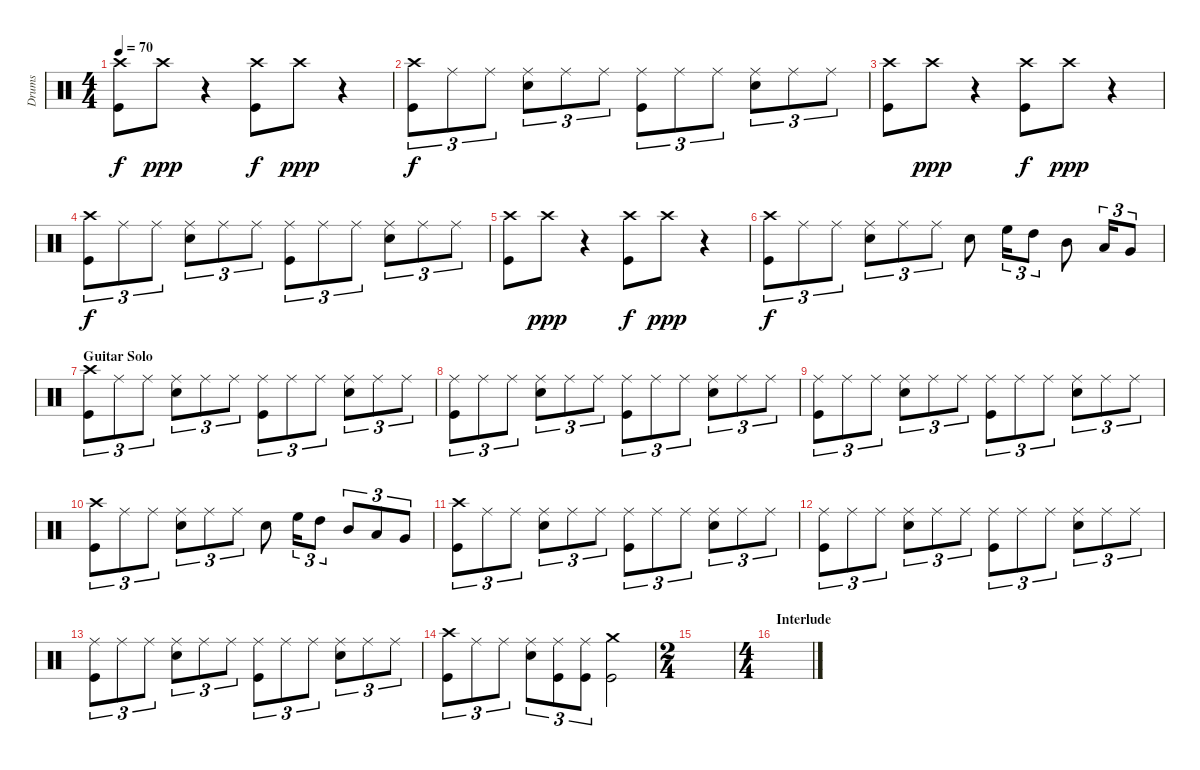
\track ("Drums" "Drums") {instrument percussion}
\staff {score}
\articulation defaults
\ts (4 4)
\tempo 70
\clef neutral
\ks c
("Crash high (hit)" "Kick (hit)").8{dy f} "Crash high (hit)".8{dy ppp} r.4 ("Crash high (hit)" "Kick (hit)").8{dy f} "Crash high (hit)".8{dy ppp} r.4 |
("Crash high (hit)" "Kick (hit)").8{tu (3 2) dy f} "Ride (middle)".8{tu (3 2)} "Ride (middle)".8{tu (3 2)} ("Ride (middle)" "Electric Snare (hit)").8{tu (3 2)} "Ride (middle)".8{tu (3 2)} "Ride (middle)".8{tu (3 2)} ("Ride (middle)" "Kick (hit)").8{tu (3 2)} "Ride (middle)".8{tu (3 2)} "Ride (middle)".8{tu (3 2)} ("Ride (middle)" "Electric Snare (hit)").8{tu (3 2)} "Ride (middle)".8{tu (3 2)} "Ride (middle)".8{tu (3 2)} |
("Crash high (hit)" "Kick (hit)").8 "Crash high (hit)".8{dy ppp} r.4 ("Crash high (hit)" "Kick (hit)").8{dy f} "Crash high (hit)".8{dy ppp} r.4 |
("Crash high (hit)" "Kick (hit)").8{tu (3 2) dy f} "Ride (middle)".8{tu (3 2)} "Ride (middle)".8{tu (3 2)} ("Ride (middle)" "Electric Snare (hit)").8{tu (3 2)} "Ride (middle)".8{tu (3 2)} "Ride (middle)".8{tu (3 2)} ("Ride (middle)" "Kick (hit)").8{tu (3 2)} "Ride (middle)".8{tu (3 2)} "Ride (middle)".8{tu (3 2)} ("Ride (middle)" "Electric Snare (hit)").8{tu (3 2)} "Ride (middle)".8{tu (3 2)} "Ride (middle)".8{tu (3 2)} |
("Crash high (hit)" "Kick (hit)").8 "Crash high (hit)".8{dy ppp} r.4 ("Crash high (hit)" "Kick (hit)").8{dy f} "Crash high (hit)".8{dy ppp} r.4 |
("Crash high (hit)" "Kick (hit)").8{tu (3 2) dy f} "Ride (middle)".8{tu (3 2)} "Ride (middle)".8{tu (3 2)} ("Ride (middle)" "Electric Snare (hit)").8{tu (3 2)} "Ride (middle)".8{tu (3 2)} "Ride (middle)".8{tu (3 2)} "Electric Snare (hit)".8 "High Floor Tom (hit)".16{tu (3 2)} "High Tom (hit)".8{tu (3 2)} "Mid Tom (hit)".8 "Low Tom (hit)".16{tu (3 2)} "Very Low Tom (hit)".8{tu (3 2)} |
\section ("" "Guitar Solo")
("Crash high (hit)" "Kick (hit)").8{tu (3 2)} "Ride (middle)".8{tu (3 2)} "Ride (middle)".8{tu (3 2)} ("Ride (middle)" "Electric Snare (hit)").8{tu (3 2)} "Ride (middle)".8{tu (3 2)} "Ride (middle)".8{tu (3 2)} ("Ride (middle)" "Kick (hit)").8{tu (3 2)} "Ride (middle)".8{tu (3 2)} "Ride (middle)".8{tu (3 2)} ("Ride (middle)" "Electric Snare (hit)").8{tu (3 2)} "Ride (middle)".8{tu (3 2)} "Ride (middle)".8{tu (3 2)} |
("Ride (middle)" "Kick (hit)").8{tu (3 2)} "Ride (middle)".8{tu (3 2)} "Ride (middle)".8{tu (3 2)} ("Ride (middle)" "Electric Snare (hit)").8{tu (3 2)} "Ride (middle)".8{tu (3 2)} "Ride (middle)".8{tu (3 2)} ("Ride (middle)" "Kick (hit)").8{tu (3 2)} "Ride (middle)".8{tu (3 2)} "Ride (middle)".8{tu (3 2)} ("Ride (middle)" "Electric Snare (hit)").8{tu (3 2)} "Ride (middle)".8{tu (3 2)} "Ride (middle)".8{tu (3 2)} |
("Ride (middle)" "Kick (hit)").8{tu (3 2)} "Ride (middle)".8{tu (3 2)} "Ride (middle)".8{tu (3 2)} ("Ride (middle)" "Electric Snare (hit)").8{tu (3 2)} "Ride (middle)".8{tu (3 2)} "Ride (middle)".8{tu (3 2)} ("Ride (middle)" "Kick (hit)").8{tu (3 2)} "Ride (middle)".8{tu (3 2)} "Ride (middle)".8{tu (3 2)} ("Ride (middle)" "Electric Snare (hit)").8{tu (3 2)} "Ride (middle)".8{tu (3 2)} "Ride (middle)".8{tu (3 2)} |
("Crash high (hit)" "Kick (hit)").8{tu (3 2)} "Ride (middle)".8{tu (3 2)} "Ride (middle)".8{tu (3 2)} ("Ride (middle)" "Electric Snare (hit)").8{tu (3 2)} "Ride (middle)".8{tu (3 2)} "Ride (middle)".8{tu (3 2)} "Electric Snare (hit)".8 "High Floor Tom (hit)".16{tu (3 2)} "High Tom (hit)".8{tu (3 2)} "Mid Tom (hit)".8{tu (3 2)} "Low Tom (hit)".8{tu (3 2)} "Very Low Tom (hit)".8{tu (3 2)} |
("Crash high (hit)" "Kick (hit)").8{tu (3 2)} "Ride (middle)".8{tu (3 2)} "Ride (middle)".8{tu (3 2)} ("Ride (middle)" "Electric Snare (hit)").8{tu (3 2)} "Ride (middle)".8{tu (3 2)} "Ride (middle)".8{tu (3 2)} ("Ride (middle)" "Kick (hit)").8{tu (3 2)} "Ride (middle)".8{tu (3 2)} "Ride (middle)".8{tu (3 2)} ("Ride (middle)" "Electric Snare (hit)").8{tu (3 2)} "Ride (middle)".8{tu (3 2)} "Ride (middle)".8{tu (3 2)} |
("Ride (middle)" "Kick (hit)").8{tu (3 2)} "Ride (middle)".8{tu (3 2)} "Ride (middle)".8{tu (3 2)} ("Ride (middle)" "Electric Snare (hit)").8{tu (3 2)} "Ride (middle)".8{tu (3 2)} "Ride (middle)".8{tu (3 2)} ("Ride (middle)" "Kick (hit)").8{tu (3 2)} "Ride (middle)".8{tu (3 2)} "Ride (middle)".8{tu (3 2)} ("Ride (middle)" "Electric Snare (hit)").8{tu (3 2)} "Ride (middle)".8{tu (3 2)} "Ride (middle)".8{tu (3 2)} |
("Ride (middle)" "Kick (hit)").8{tu (3 2)} "Ride (middle)".8{tu (3 2)} "Ride (middle)".8{tu (3 2)} ("Ride (middle)" "Electric Snare (hit)").8{tu (3 2)} "Ride (middle)".8{tu (3 2)} "Ride (middle)".8{tu (3 2)} ("Ride (middle)" "Kick (hit)").8{tu (3 2)} "Ride (middle)".8{tu (3 2)} "Ride (middle)".8{tu (3 2)} ("Ride (middle)" "Electric Snare (hit)").8{tu (3 2)} "Ride (middle)".8{tu (3 2)} "Ride (middle)".8{tu (3 2)} |
("Crash high (hit)" "Kick (hit)").8{tu (3 2)} "Ride (middle)".8{tu (3 2)} "Ride (middle)".8{tu (3 2)} ("Ride (middle)" "Electric Snare (hit)").8{tu (3 2)} ("Ride (middle)" "Kick (hit)").8{tu (3 2)} ("Ride (middle)" "Kick (hit)").8{tu (3 2)} ("Crash medium (hit)" "Kick (hit)").2 |
\ts (2 4)
|
\ts (4 4)
\section ("" "Interlude")
